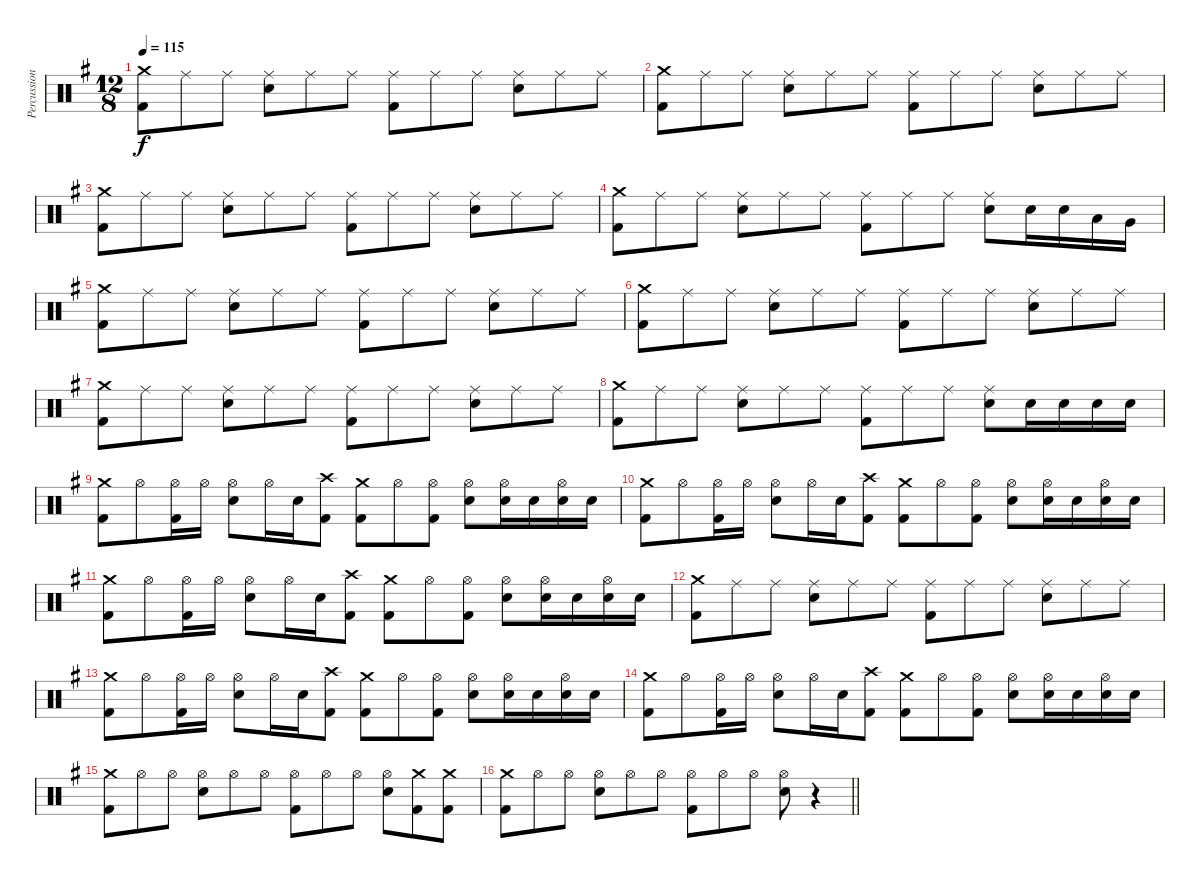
\track ("Percussion" "Percussion") {instrument percussion}
\staff {score}
\articulation defaults
\ts (12 8)
\tempo 115
\clef neutral
\ks g
("Crash medium (hit)" "Kick (hit) 2").8{dy f} "Ride (middle)".8 "Ride (middle)".8 ("Ride (middle)" "Snare (hit) 2").8 "Ride (middle)".8 "Ride (middle)".8 ("Ride (middle)" "Kick (hit) 2").8 "Ride (middle)".8 "Ride (middle)".8 ("Ride (middle)" "Snare (hit) 2").8 "Ride (middle)".8 "Ride (middle)".8 |
("Crash medium (hit)" "Kick (hit) 2").8 "Ride (middle)".8 "Ride (middle)".8 ("Ride (middle)" "Snare (hit) 2").8 "Ride (middle)".8 "Ride (middle)".8 ("Ride (middle)" "Kick (hit) 2").8 "Ride (middle)".8 "Ride (middle)".8 ("Ride (middle)" "Snare (hit) 2").8 "Ride (middle)".8 "Ride (middle)".8 |
("Crash medium (hit)" "Kick (hit) 2").8 "Ride (middle)".8 "Ride (middle)".8 ("Ride (middle)" "Snare (hit) 2").8 "Ride (middle)".8 "Ride (middle)".8 ("Ride (middle)" "Kick (hit) 2").8 "Ride (middle)".8 "Ride (middle)".8 ("Ride (middle)" "Snare (hit) 2").8 "Ride (middle)".8 "Ride (middle)".8 |
("Crash medium (hit)" "Kick (hit) 2").8 "Ride (middle)".8 "Ride (middle)".8 ("Ride (middle)" "Snare (hit) 2").8 "Ride (middle)".8 "Ride (middle)".8 ("Ride (middle)" "Kick (hit) 2").8 "Ride (middle)".8 "Ride (middle)".8 ("Ride (middle)" "Snare (hit) 2").8 "Snare (hit) 2".16 "Snare (hit) 2".16 "Low Tom (hit)".16 "Very Low Tom (hit)".16 |
("Crash medium (hit)" "Kick (hit) 2").8 "Ride (middle)".8 "Ride (middle)".8 ("Ride (middle)" "Snare (hit) 2").8 "Ride (middle)".8 "Ride (middle)".8 ("Ride (middle)" "Kick (hit) 2").8 "Ride (middle)".8 "Ride (middle)".8 ("Ride (middle)" "Snare (hit) 2").8 "Ride (middle)".8 "Ride (middle)".8 |
("Crash medium (hit)" "Kick (hit) 2").8 "Ride (middle)".8 "Ride (middle)".8 ("Ride (middle)" "Snare (hit) 2").8 "Ride (middle)".8 "Ride (middle)".8 ("Ride (middle)" "Kick (hit) 2").8 "Ride (middle)".8 "Ride (middle)".8 ("Ride (middle)" "Snare (hit) 2").8 "Ride (middle)".8 "Ride (middle)".8 |
("Crash medium (hit)" "Kick (hit) 2").8 "Ride (middle)".8 "Ride (middle)".8 ("Ride (middle)" "Snare (hit) 2").8 "Ride (middle)".8 "Ride (middle)".8 ("Ride (middle)" "Kick (hit) 2").8 "Ride (middle)".8 "Ride (middle)".8 ("Ride (middle)" "Snare (hit) 2").8 "Ride (middle)".8 "Ride (middle)".8 |
("Crash medium (hit)" "Kick (hit) 2").8 "Ride (middle)".8 "Ride (middle)".8 ("Ride (middle)" "Snare (hit) 2").8 "Ride (middle)".8 "Ride (middle)".8 ("Ride (middle)" "Kick (hit) 2").8 "Ride (middle)".8 "Ride (middle)".8 ("Ride (middle)" "Snare (hit) 2").8 "Snare (hit) 2".16 "Snare (hit) 2".16 "Snare (hit) 2".16 "Snare (hit) 2".16 |
("Crash medium (hit)" "Kick (hit) 2").8 "Hi-Hat (open)".8 ("Hi-Hat (open)" "Kick (hit) 2").16 "Hi-Hat (open)".16 ("Hi-Hat (open)" "Electric Snare (hit)").8 "Hi-Hat (open)".16 "Electric Snare (hit)".16 ("Crash high (hit)" "Kick (hit) 2").8 ("Crash medium (hit)" "Kick (hit) 2").8 "Hi-Hat (open)".8 ("Hi-Hat (open)" "Kick (hit) 2").8 ("Hi-Hat (open)" "Electric Snare (hit)").8 ("Hi-Hat (open)" "Electric Snare (hit)").16 "Electric Snare (hit)".16 ("Hi-Hat (open)" "Electric Snare (hit)").16 "Electric Snare (hit)".16 |
("Crash medium (hit)" "Kick (hit) 2").8 "Hi-Hat (open)".8 ("Hi-Hat (open)" "Kick (hit) 2").16 "Hi-Hat (open)".16 ("Hi-Hat (open)" "Electric Snare (hit)").8 "Hi-Hat (open)".16 "Electric Snare (hit)".16 ("Crash high (hit)" "Kick (hit) 2").8 ("Crash medium (hit)" "Kick (hit) 2").8 "Hi-Hat (open)".8 ("Hi-Hat (open)" "Kick (hit) 2").8 ("Hi-Hat (open)" "Electric Snare (hit)").8 ("Hi-Hat (open)" "Electric Snare (hit)").16 "Electric Snare (hit)".16 ("Hi-Hat (open)" "Electric Snare (hit)").16 "Electric Snare (hit)".16 |
("Crash medium (hit)" "Kick (hit) 2").8 "Hi-Hat (open)".8 ("Hi-Hat (open)" "Kick (hit) 2").16 "Hi-Hat (open)".16 ("Hi-Hat (open)" "Electric Snare (hit)").8 "Hi-Hat (open)".16 "Electric Snare (hit)".16 ("Crash high (hit)" "Kick (hit) 2").8 ("Crash medium (hit)" "Kick (hit) 2").8 "Hi-Hat (open)".8 ("Hi-Hat (open)" "Kick (hit) 2").8 ("Hi-Hat (open)" "Electric Snare (hit)").8 ("Hi-Hat (open)" "Electric Snare (hit)").16 "Electric Snare (hit)".16 ("Hi-Hat (open)" "Electric Snare (hit)").16 "Electric Snare (hit)".16 |
("Crash medium (hit)" "Kick (hit) 2").8 "Ride (middle)".8 "Ride (middle)".8 ("Ride (middle)" "Snare (hit) 2").8 "Ride (middle)".8 "Ride (middle)".8 ("Ride (middle)" "Kick (hit) 2").8 "Ride (middle)".8 "Ride (middle)".8 ("Ride (middle)" "Snare (hit) 2").8 "Ride (middle)".8 "Ride (middle)".8 |
("Crash medium (hit)" "Kick (hit) 2").8 "Hi-Hat (open)".8 ("Hi-Hat (open)" "Kick (hit) 2").16 "Hi-Hat (open)".16 ("Hi-Hat (open)" "Snare (hit) 2").8 "Hi-Hat (open)".16 "Snare (hit) 2".16 ("Crash high (hit)" "Kick (hit) 2").8 ("Crash medium (hit)" "Kick (hit) 2").8 "Hi-Hat (open)".8 ("Hi-Hat (open)" "Kick (hit) 2").8 ("Hi-Hat (open)" "Snare (hit) 2").8 ("Hi-Hat (open)" "Snare (hit) 2").16 "Snare (hit) 2".16 ("Hi-Hat (open)" "Snare (hit) 2").16 "Snare (hit) 2".16 |
("Crash medium (hit)" "Kick (hit) 2").8 "Hi-Hat (open)".8 ("Hi-Hat (open)" "Kick (hit) 2").16 "Hi-Hat (open)".16 ("Hi-Hat (open)" "Electric Snare (hit)").8 "Hi-Hat (open)".16 "Electric Snare (hit)".16 ("Crash high (hit)" "Kick (hit) 2").8 ("Crash medium (hit)" "Kick (hit) 2").8 "Hi-Hat (open)".8 ("Hi-Hat (open)" "Kick (hit) 2").8 ("Hi-Hat (open)" "Electric Snare (hit)").8 ("Hi-Hat (open)" "Electric Snare (hit)").16 "Electric Snare (hit)".16 ("Hi-Hat (open)" "Electric Snare (hit)").16 "Electric Snare (hit)".16 |
("Crash medium (hit)" "Kick (hit) 2").8 "Hi-Hat (open)".8 "Hi-Hat (open)".8 ("Hi-Hat (open)" "Snare (hit) 2").8 "Hi-Hat (open)".8 "Hi-Hat (open)".8 ("Hi-Hat (open)" "Kick (hit) 2").8 "Hi-Hat (open)".8 "Hi-Hat (open)".8 ("Hi-Hat (open)" "Snare (hit) 2").8 ("Crash medium (hit)" "Kick (hit) 2").8 ("Crash medium (hit)" "Kick (hit) 2").8 |
\barLineRight lightlight
("Crash medium (hit)" "Kick (hit) 2").8 "Hi-Hat (open)".8 "Hi-Hat (open)".8 ("Hi-Hat (open)" "Snare (hit) 2").8 "Hi-Hat (open)".8 "Hi-Hat (open)".8 ("Hi-Hat (open)" "Kick (hit) 2").8 "Hi-Hat (open)".8 "Hi-Hat (open)".8 ("Hi-Hat (open)" "Snare (hit) 2").8 r.4
